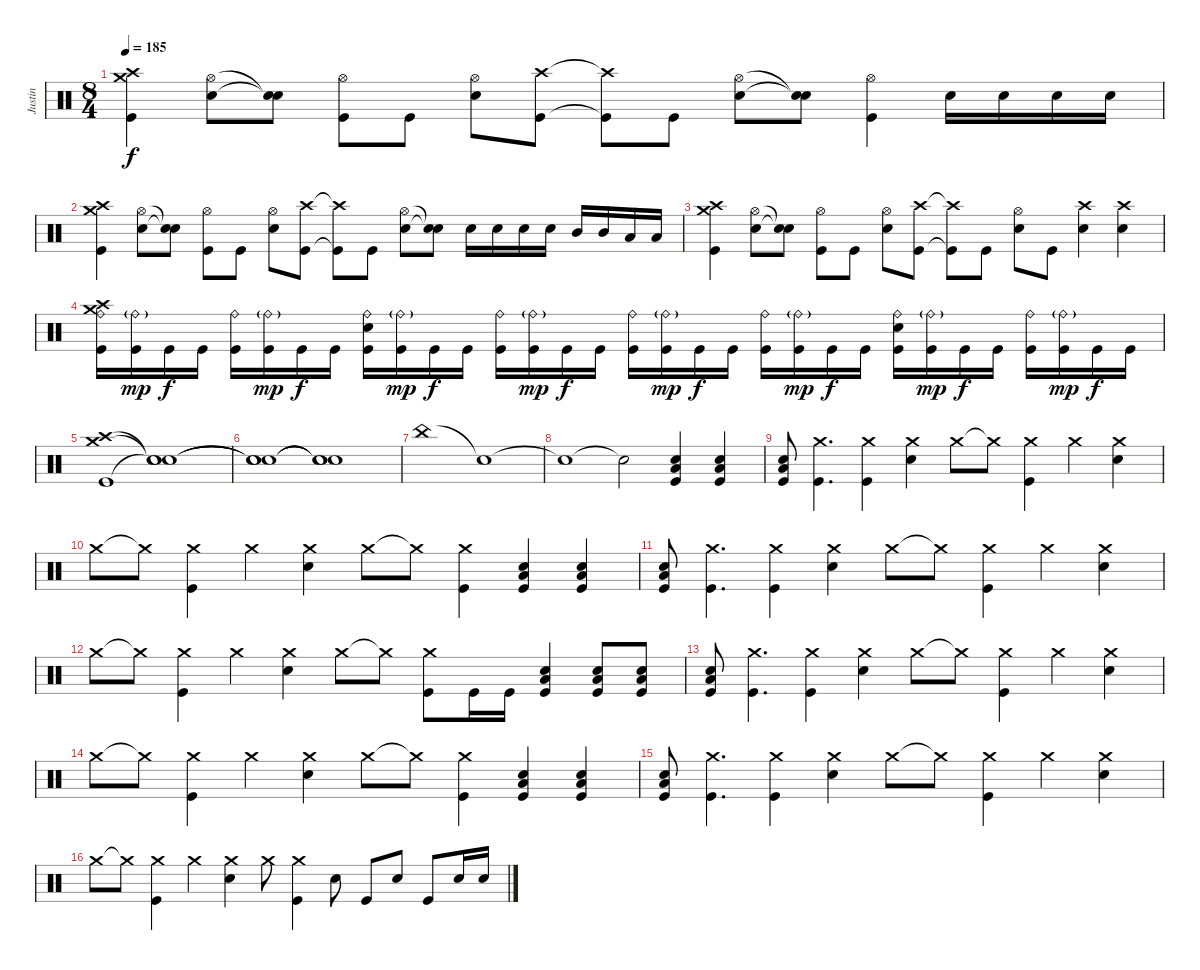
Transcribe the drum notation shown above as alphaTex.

\track ("Justin" "Justin") {instrument percussion}
\staff {score}
\articulation defaults
\ts (8 4)
\tempo 185
\clef neutral
\ks c
("Crash high (hit)" "Crash medium (hit)" "Kick (hit)").4{dy f} ("Hi-Hat (open)" "Electric Snare (hit)").8 ("Snare (hit)"{t} "Snare (hit)"{t}).8 ("Hi-Hat (open)" "Kick (hit)").8 "Kick (hit)".8 ("Hi-Hat (open)" "Electric Snare (hit)").8 ("Crash high (hit)" "Kick (hit)").8 ("Crash high (hit)"{t} "Kick (hit)"{t}).8 "Kick (hit)".8 ("Hi-Hat (open)" "Electric Snare (hit)").8 ("Snare (hit)"{t} "Snare (hit)"{t}).8 ("Hi-Hat (open)" "Kick (hit)").4 "Electric Snare (hit)".16 "Electric Snare (hit)".16 "Electric Snare (hit)".16 "Electric Snare (hit)".16 |
("Crash high (hit)" "Crash medium (hit)" "Kick (hit)").4 ("Hi-Hat (open)" "Electric Snare (hit)").8 ("Snare (hit)"{t} "Snare (hit)"{t}).8 ("Hi-Hat (open)" "Kick (hit)").8 "Kick (hit)".8 ("Hi-Hat (open)" "Electric Snare (hit)").8 ("Crash high (hit)" "Kick (hit)").8 ("Crash high (hit)"{t} "Kick (hit)"{t}).8 "Kick (hit)".8 ("Hi-Hat (open)" "Electric Snare (hit)").8 ("Snare (hit)"{t} "Snare (hit)"{t}).8 "Electric Snare (hit)".16 "Electric Snare (hit)".16 "Electric Snare (hit)".16 "Electric Snare (hit)".16 "Mid Tom (hit)".16 "Mid Tom (hit)".16 "Low Tom (hit)".16 "Low Tom (hit)".16 |
("Crash high (hit)" "Crash medium (hit)" "Kick (hit)").4 ("Hi-Hat (open)" "Electric Snare (hit)").8 ("Snare (hit)"{t} "Snare (hit)"{t}).8 ("Hi-Hat (open)" "Kick (hit)").8 "Kick (hit)".8 ("Hi-Hat (open)" "Electric Snare (hit)").8 ("Crash high (hit)" "Kick (hit)").8 ("Crash high (hit)"{t} "Kick (hit)"{t}).8 "Kick (hit)".8 ("Hi-Hat (open)" "Electric Snare (hit)").8 "Kick (hit)".8 ("Crash high (hit)" "Electric Snare (hit)").4 ("Crash high (hit)" "Electric Snare (hit)").4 |
("Crash high (hit)" "Crash medium (hit)" "Ride (bell)" "Kick (hit)").16 ("Ride (bell)"{g} "Kick (hit)").16{dy mp} "Kick (hit)".16{dy f} "Kick (hit)".16 ("Ride (bell)" "Kick (hit)").16 ("Ride (bell)"{g} "Kick (hit)").16{dy mp} "Kick (hit)".16{dy f} "Kick (hit)".16 ("Ride (bell)" "Electric Snare (hit)" "Kick (hit)").16 ("Ride (bell)"{g} "Kick (hit)").16{dy mp} "Kick (hit)".16{dy f} "Kick (hit)".16 ("Ride (bell)" "Kick (hit)").16 ("Ride (bell)"{g} "Kick (hit)").16{dy mp} "Kick (hit)".16{dy f} "Kick (hit)".16 ("Ride (bell)" "Kick (hit)").16 ("Ride (bell)"{g} "Kick (hit)").16{dy mp} "Kick (hit)".16{dy f} "Kick (hit)".16 ("Ride (bell)" "Kick (hit)").16 ("Ride (bell)"{g} "Kick (hit)").16{dy mp} "Kick (hit)".16{dy f} "Kick (hit)".16 ("Ride (bell)" "Electric Snare (hit)" "Kick (hit)").16 ("Ride (bell)"{g} "Kick (hit)").16{dy mp} "Kick (hit)".16{dy f} "Kick (hit)".16 ("Ride (bell)" "Kick (hit)").16 ("Ride (bell)"{g} "Kick (hit)").16{dy mp} "Kick (hit)".16{dy f} "Kick (hit)".16 |
("Crash high (hit)" "Crash medium (hit)" "Kick (hit)").1 ("Snare (hit)"{t} "Snare (hit)"{t} "Snare (hit)"{t}).1 |
("Snare (hit)"{t} "Snare (hit)"{t} "Snare (hit)"{t}).1 ("Snare (hit)"{t} "Snare (hit)"{t} "Snare (hit)"{t}).1 |
"China (hit)".1 "Snare (hit)"{t}.1 |
"Snare (hit)"{t}.1 "Snare (hit)"{t}.2 ("Low Tom (hit)" "Electric Snare (hit)" "Kick (hit)").4 ("Low Tom (hit)" "Electric Snare (hit)" "Kick (hit)").4 |
("Low Tom (hit)" "Electric Snare (hit)" "Kick (hit)").8 ("Crash medium (hit)" "Kick (hit)").4{d} ("Crash medium (hit)" "Kick (hit)").4 ("Crash medium (hit)" "Electric Snare (hit)").4 "Crash medium (hit)".8 "Crash medium (hit)"{t}.8 ("Crash medium (hit)" "Kick (hit)").4 "Crash medium (hit)".4 ("Crash medium (hit)" "Electric Snare (hit)").4 |
"Crash medium (hit)".8 "Crash medium (hit)"{t}.8 ("Crash medium (hit)" "Kick (hit)").4 "Crash medium (hit)".4 ("Crash medium (hit)" "Electric Snare (hit)").4 "Crash medium (hit)".8 "Crash medium (hit)"{t}.8 ("Crash medium (hit)" "Kick (hit)").4 ("Low Tom (hit)" "Electric Snare (hit)" "Kick (hit)").4 ("Low Tom (hit)" "Electric Snare (hit)" "Kick (hit)").4 |
("Low Tom (hit)" "Electric Snare (hit)" "Kick (hit)").8 ("Crash medium (hit)" "Kick (hit)").4{d} ("Crash medium (hit)" "Kick (hit)").4 ("Crash medium (hit)" "Electric Snare (hit)").4 "Crash medium (hit)".8 "Crash medium (hit)"{t}.8 ("Crash medium (hit)" "Kick (hit)").4 "Crash medium (hit)".4 ("Crash medium (hit)" "Electric Snare (hit)").4 |
"Crash medium (hit)".8 "Crash medium (hit)"{t}.8 ("Crash medium (hit)" "Kick (hit)").4 "Crash medium (hit)".4 ("Crash medium (hit)" "Electric Snare (hit)").4 "Crash medium (hit)".8 "Crash medium (hit)"{t}.8 ("Crash medium (hit)" "Kick (hit)").8 "Kick (hit)".16 "Kick (hit)".16 ("Low Tom (hit)" "Electric Snare (hit)" "Kick (hit)").4 ("Low Tom (hit)" "Electric Snare (hit)" "Kick (hit)").8 ("Low Tom (hit)" "Electric Snare (hit)" "Kick (hit)").8 |
("Low Tom (hit)" "Electric Snare (hit)" "Kick (hit)").8 ("Crash medium (hit)" "Kick (hit)").4{d} ("Crash medium (hit)" "Kick (hit)").4 ("Crash medium (hit)" "Electric Snare (hit)").4 "Crash medium (hit)".8 "Crash medium (hit)"{t}.8 ("Crash medium (hit)" "Kick (hit)").4 "Crash medium (hit)".4 ("Crash medium (hit)" "Electric Snare (hit)").4 |
"Crash medium (hit)".8 "Crash medium (hit)"{t}.8 ("Crash medium (hit)" "Kick (hit)").4 "Crash medium (hit)".4 ("Crash medium (hit)" "Electric Snare (hit)").4 "Crash medium (hit)".8 "Crash medium (hit)"{t}.8 ("Crash medium (hit)" "Kick (hit)").4 ("Low Tom (hit)" "Electric Snare (hit)" "Kick (hit)").4 ("Low Tom (hit)" "Electric Snare (hit)" "Kick (hit)").4 |
("Low Tom (hit)" "Electric Snare (hit)" "Kick (hit)").8 ("Crash medium (hit)" "Kick (hit)").4{d} ("Crash medium (hit)" "Kick (hit)").4 ("Crash medium (hit)" "Electric Snare (hit)").4 "Crash medium (hit)".8 "Crash medium (hit)"{t}.8 ("Crash medium (hit)" "Kick (hit)").4 "Crash medium (hit)".4 ("Crash medium (hit)" "Electric Snare (hit)").4 |
"Crash medium (hit)".8 "Crash medium (hit)"{t}.8 ("Crash medium (hit)" "Kick (hit)").4 "Crash medium (hit)".4 ("Crash medium (hit)" "Electric Snare (hit)").4 "Crash medium (hit)".8 ("Crash medium (hit)" "Kick (hit)").4 "Electric Snare (hit)".8 "Kick (hit)".8 "Electric Snare (hit)".8 "Kick (hit)".8 "Electric Snare (hit)".16 "Electric Snare (hit)".16
